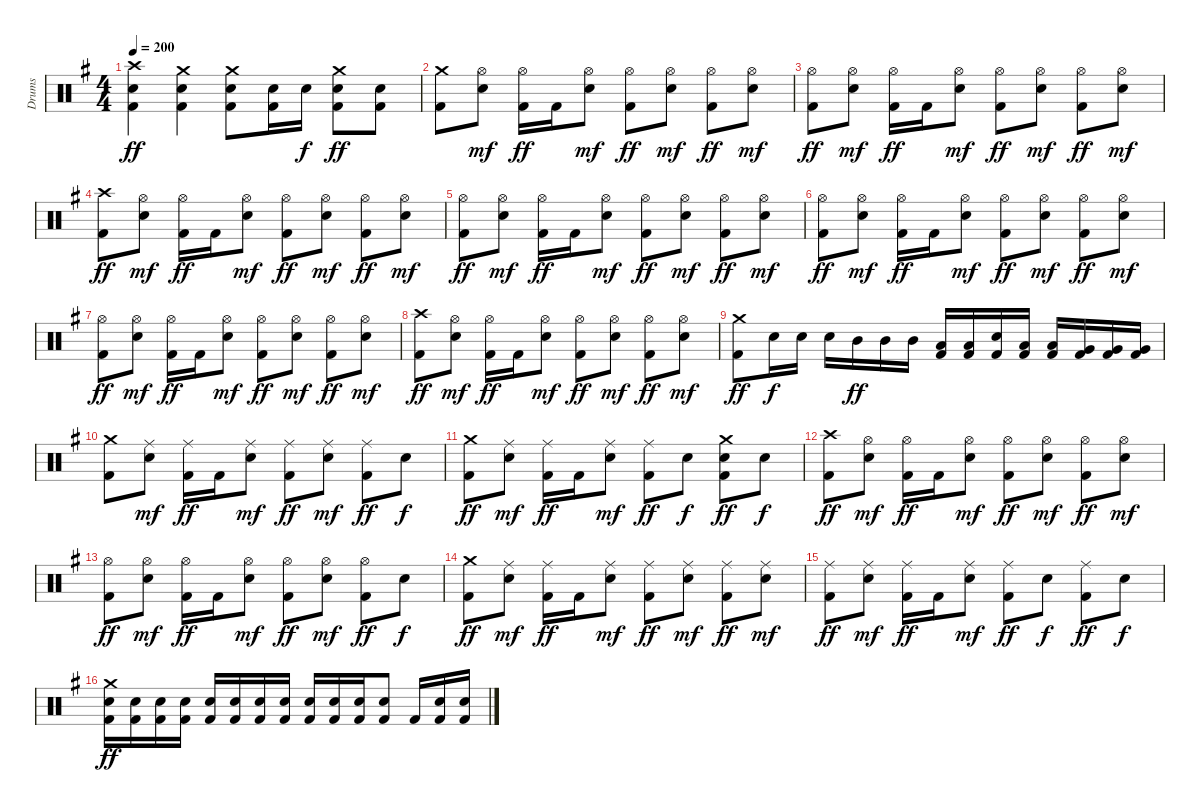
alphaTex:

\track ("Drums" "Drums") {instrument percussion}
\staff {score}
\articulation defaults
\ts (4 4)
\tempo 200
\clef neutral
\ks g
("Crash high (hit)" "Snare (hit) 2" "Kick (hit) 2").4{dy ff} ("Crash medium (hit)" "Snare (hit) 2" "Kick (hit) 2").4 ("Crash medium (hit)" "Snare (hit) 2" "Kick (hit) 2").8 ("Snare (hit) 2" "Kick (hit) 2").16 "Snare (hit) 2".16{dy f} ("Crash medium (hit)" "Snare (hit) 2" "Kick (hit) 2").8{dy ff} ("Snare (hit) 2" "Kick (hit) 2").8 |
("Crash medium (hit)" "Kick (hit) 2").8 ("Hi-Hat (open)" "Snare (hit) 2").8{dy mf} ("Hi-Hat (open)" "Kick (hit) 2").16{dy ff} "Kick (hit) 2".16 ("Hi-Hat (open)" "Snare (hit) 2").8{dy mf} ("Hi-Hat (open)" "Kick (hit) 2").8{dy ff} ("Hi-Hat (open)" "Snare (hit) 2").8{dy mf} ("Hi-Hat (open)" "Kick (hit) 2").8{dy ff} ("Hi-Hat (open)" "Snare (hit) 2").8{dy mf} |
("Hi-Hat (open)" "Kick (hit) 2").8{dy ff} ("Hi-Hat (open)" "Snare (hit) 2").8{dy mf} ("Hi-Hat (open)" "Kick (hit) 2").16{dy ff} "Kick (hit) 2".16 ("Hi-Hat (open)" "Snare (hit) 2").8{dy mf} ("Hi-Hat (open)" "Kick (hit) 2").8{dy ff} ("Hi-Hat (open)" "Snare (hit) 2").8{dy mf} ("Hi-Hat (open)" "Kick (hit) 2").8{dy ff} ("Hi-Hat (open)" "Snare (hit) 2").8{dy mf} |
("Crash high (hit)" "Kick (hit) 2").8{dy ff} ("Hi-Hat (open)" "Snare (hit) 2").8{dy mf} ("Hi-Hat (open)" "Kick (hit) 2").16{dy ff} "Kick (hit) 2".16 ("Hi-Hat (open)" "Snare (hit) 2").8{dy mf} ("Hi-Hat (open)" "Kick (hit) 2").8{dy ff} ("Hi-Hat (open)" "Snare (hit) 2").8{dy mf} ("Hi-Hat (open)" "Kick (hit) 2").8{dy ff} ("Hi-Hat (open)" "Snare (hit) 2").8{dy mf} |
("Hi-Hat (open)" "Kick (hit) 2").8{dy ff} ("Hi-Hat (open)" "Snare (hit) 2").8{dy mf} ("Hi-Hat (open)" "Kick (hit) 2").16{dy ff} "Kick (hit) 2".16 ("Hi-Hat (open)" "Snare (hit) 2").8{dy mf} ("Hi-Hat (open)" "Kick (hit) 2").8{dy ff} ("Hi-Hat (open)" "Snare (hit) 2").8{dy mf} ("Hi-Hat (open)" "Kick (hit) 2").8{dy ff} ("Hi-Hat (open)" "Snare (hit) 2").8{dy mf} |
("Hi-Hat (open)" "Kick (hit) 2").8{dy ff} ("Hi-Hat (open)" "Snare (hit) 2").8{dy mf} ("Hi-Hat (open)" "Kick (hit) 2").16{dy ff} "Kick (hit) 2".16 ("Hi-Hat (open)" "Snare (hit) 2").8{dy mf} ("Hi-Hat (open)" "Kick (hit) 2").8{dy ff} ("Hi-Hat (open)" "Snare (hit) 2").8{dy mf} ("Hi-Hat (open)" "Kick (hit) 2").8{dy ff} ("Hi-Hat (open)" "Snare (hit) 2").8{dy mf} |
("Hi-Hat (open)" "Kick (hit) 2").8{dy ff} ("Hi-Hat (open)" "Snare (hit) 2").8{dy mf} ("Hi-Hat (open)" "Kick (hit) 2").16{dy ff} "Kick (hit) 2".16 ("Hi-Hat (open)" "Snare (hit) 2").8{dy mf} ("Hi-Hat (open)" "Kick (hit) 2").8{dy ff} ("Hi-Hat (open)" "Snare (hit) 2").8{dy mf} ("Hi-Hat (open)" "Kick (hit) 2").8{dy ff} ("Hi-Hat (open)" "Snare (hit) 2").8{dy mf} |
("Crash high (hit)" "Kick (hit) 2").8{dy ff} ("Hi-Hat (open)" "Snare (hit) 2").8{dy mf} ("Hi-Hat (open)" "Kick (hit) 2").16{dy ff} "Kick (hit) 2".16 ("Hi-Hat (open)" "Snare (hit) 2").8{dy mf} ("Hi-Hat (open)" "Kick (hit) 2").8{dy ff} ("Hi-Hat (open)" "Snare (hit) 2").8{dy mf} ("Hi-Hat (open)" "Kick (hit) 2").8{dy ff} ("Hi-Hat (open)" "Snare (hit) 2").8{dy mf} |
("Crash medium (hit)" "Kick (hit) 2").8{dy ff} "Snare (hit) 2".16{dy f} "Snare (hit) 2".16 "Snare (hit) 2".16 "Mid Tom (hit)".16{dy ff} "Mid Tom (hit)".16 "Mid Tom (hit)".16 ("Low Tom (hit)" "Kick (hit) 2").16 ("Low Tom (hit)" "Kick (hit) 2").16 ("Snare (hit) 2" "Kick (hit) 2").16 ("Low Tom (hit)" "Kick (hit) 2").16 ("Low Tom (hit)" "Kick (hit) 2").16 ("Very Low Tom (hit)" "Kick (hit) 2").16 ("Very Low Tom (hit)" "Kick (hit) 2").16 ("Very Low Tom (hit)" "Kick (hit) 2").16 |
("Crash medium (hit)" "Kick (hit) 2").8 ("Ride (middle)" "Snare (hit) 2").8{dy mf} ("Ride (middle)" "Kick (hit) 2").16{dy ff} "Kick (hit) 2".16 ("Ride (middle)" "Snare (hit) 2").8{dy mf} ("Ride (middle)" "Kick (hit) 2").8{dy ff} ("Ride (middle)" "Snare (hit) 2").8{dy mf} ("Ride (middle)" "Kick (hit) 2").8{dy ff} "Snare (hit) 2".8{dy f} |
("Crash medium (hit)" "Kick (hit) 2").8{dy ff} ("Ride (middle)" "Snare (hit) 2").8{dy mf} ("Ride (middle)" "Kick (hit) 2").16{dy ff} "Kick (hit) 2".16 ("Ride (middle)" "Snare (hit) 2").8{dy mf} ("Ride (middle)" "Kick (hit) 2").8{dy ff} "Snare (hit) 2".8{dy f} ("Crash medium (hit)" "Snare (hit) 2" "Kick (hit) 2").8{dy ff} "Snare (hit) 2".8{dy f} |
("Crash high (hit)" "Kick (hit) 2").8{dy ff} ("Hi-Hat (open)" "Snare (hit) 2").8{dy mf} ("Hi-Hat (open)" "Kick (hit) 2").16{dy ff} "Kick (hit) 2".16 ("Hi-Hat (open)" "Snare (hit) 2").8{dy mf} ("Hi-Hat (open)" "Kick (hit) 2").8{dy ff} ("Hi-Hat (open)" "Snare (hit) 2").8{dy mf} ("Hi-Hat (open)" "Kick (hit) 2").8{dy ff} ("Hi-Hat (open)" "Snare (hit) 2").8{dy mf} |
("Hi-Hat (open)" "Kick (hit) 2").8{dy ff} ("Hi-Hat (open)" "Snare (hit) 2").8{dy mf} ("Hi-Hat (open)" "Kick (hit) 2").16{dy ff} "Kick (hit) 2".16 ("Hi-Hat (open)" "Snare (hit) 2").8{dy mf} ("Hi-Hat (open)" "Kick (hit) 2").8{dy ff} ("Hi-Hat (open)" "Snare (hit) 2").8{dy mf} ("Hi-Hat (open)" "Kick (hit) 2").8{dy ff} "Snare (hit) 2".8{dy f} |
("Crash medium (hit)" "Kick (hit) 2").8{dy ff} ("Ride (middle)" "Snare (hit) 2").8{dy mf} ("Ride (middle)" "Kick (hit) 2").16{dy ff} "Kick (hit) 2".16 ("Ride (middle)" "Snare (hit) 2").8{dy mf} ("Ride (middle)" "Kick (hit) 2").8{dy ff} ("Ride (middle)" "Snare (hit) 2").8{dy mf} ("Ride (middle)" "Kick (hit) 2").8{dy ff} ("Ride (middle)" "Snare (hit) 2").8{dy mf} |
("Ride (middle)" "Kick (hit) 2").8{dy ff} ("Ride (middle)" "Snare (hit) 2").8{dy mf} ("Ride (middle)" "Kick (hit) 2").16{dy ff} "Kick (hit) 2".16 ("Ride (middle)" "Snare (hit) 2").8{dy mf} ("Ride (middle)" "Kick (hit) 2").8{dy ff} "Snare (hit) 2".8{dy f} ("Ride (middle)" "Kick (hit) 2").8{dy ff} "Snare (hit) 2".8{dy f} |
("Crash medium (hit)" "Snare (hit) 2" "Kick (hit) 2").16{dy ff} ("Snare (hit) 2" "Kick (hit) 2").16 ("Snare (hit) 2" "Kick (hit) 2").16 ("Snare (hit) 2" "Kick (hit) 2").16 ("Snare (hit) 2" "Kick (hit) 2").16 ("Snare (hit) 2" "Kick (hit) 2").16 ("Snare (hit) 2" "Kick (hit) 2").16 ("Snare (hit) 2" "Kick (hit) 2").16 ("Snare (hit) 2" "Kick (hit) 2").16 ("Snare (hit) 2" "Kick (hit) 2").16 ("Snare (hit) 2" "Kick (hit) 2").16 ("Snare (hit) 2" "Kick (hit) 2").8 "Kick (hit) 2".16 ("Snare (hit) 2" "Kick (hit) 2").16 ("Snare (hit) 2" "Kick (hit) 2").16
